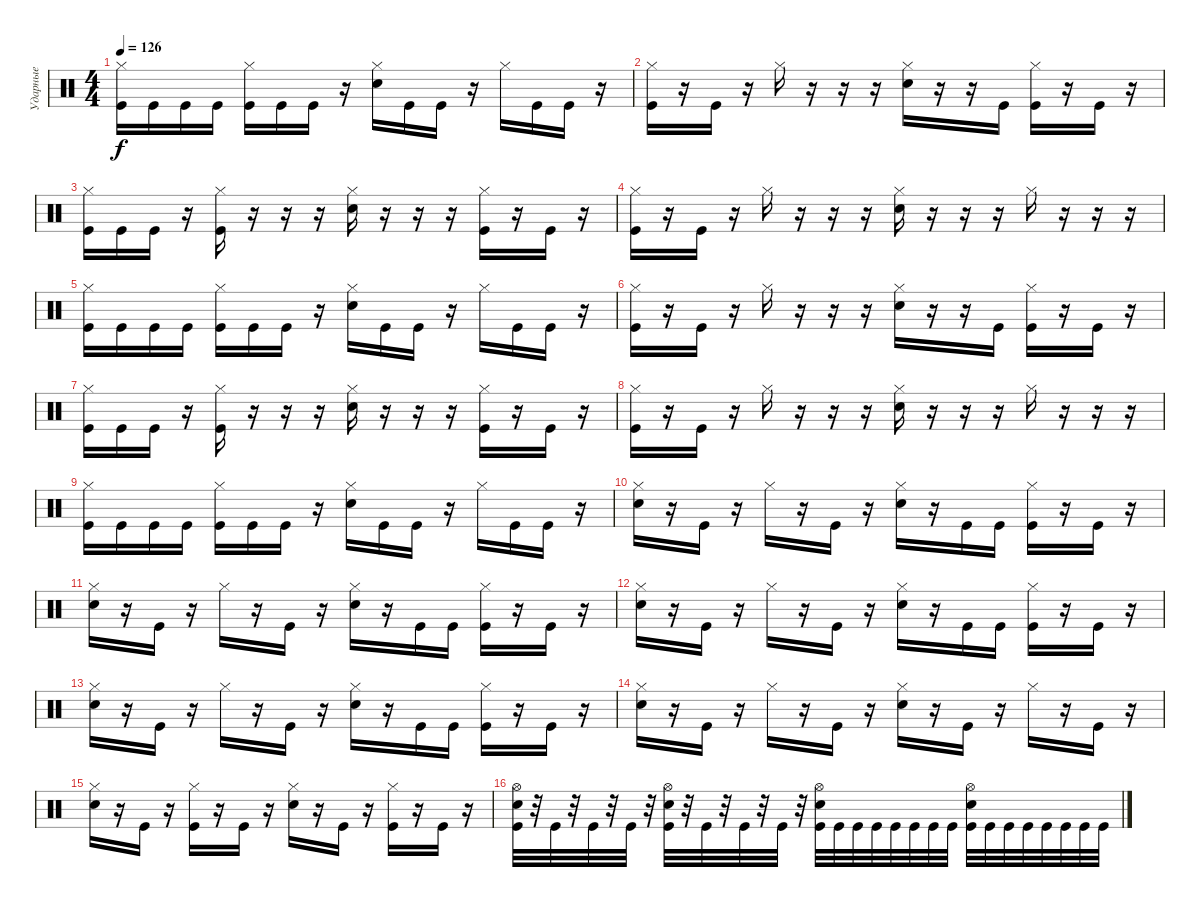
\track ("Ударные" "Ударные") {instrument percussion}
\staff {score}
\articulation defaults
\ts (4 4)
\tempo 126
\clef neutral
\ks c
("Hi-Hat (closed)" "Kick (hit)").16{dy f} "Kick (hit)".16 "Kick (hit)".16 "Kick (hit)".16 ("Hi-Hat (closed)" "Kick (hit)").16 "Kick (hit)".16 "Kick (hit)".16 r.16 ("Hi-Hat (closed)" "Electric Snare (hit)").16 "Kick (hit)".16 "Kick (hit)".16 r.16 "Hi-Hat (closed)".16 "Kick (hit)".16 "Kick (hit)".16 r.16 |
("Hi-Hat (closed)" "Kick (hit)").16 r.16 "Kick (hit)".16 r.16 "Hi-Hat (closed)".16 r.16 r.16 r.16 ("Hi-Hat (closed)" "Electric Snare (hit)").16 r.16 r.16 "Kick (hit)".16 ("Hi-Hat (closed)" "Kick (hit)").16 r.16 "Kick (hit)".16 r.16 |
("Hi-Hat (closed)" "Kick (hit)").16 "Kick (hit)".16 "Kick (hit)".16 r.16 ("Hi-Hat (closed)" "Kick (hit)").16 r.16 r.16 r.16 ("Hi-Hat (closed)" "Electric Snare (hit)").16 r.16 r.16 r.16 ("Hi-Hat (closed)" "Kick (hit)").16 r.16 "Kick (hit)".16 r.16 |
("Hi-Hat (closed)" "Kick (hit)").16 r.16 "Kick (hit)".16 r.16 "Hi-Hat (closed)".16 r.16 r.16 r.16 ("Hi-Hat (closed)" "Electric Snare (hit)").16 r.16 r.16 r.16 "Hi-Hat (closed)".16 r.16 r.16 r.16 |
("Hi-Hat (closed)" "Kick (hit)").16 "Kick (hit)".16 "Kick (hit)".16 "Kick (hit)".16 ("Hi-Hat (closed)" "Kick (hit)").16 "Kick (hit)".16 "Kick (hit)".16 r.16 ("Hi-Hat (closed)" "Electric Snare (hit)").16 "Kick (hit)".16 "Kick (hit)".16 r.16 "Hi-Hat (closed)".16 "Kick (hit)".16 "Kick (hit)".16 r.16 |
("Hi-Hat (closed)" "Kick (hit)").16 r.16 "Kick (hit)".16 r.16 "Hi-Hat (closed)".16 r.16 r.16 r.16 ("Hi-Hat (closed)" "Electric Snare (hit)").16 r.16 r.16 "Kick (hit)".16 ("Hi-Hat (closed)" "Kick (hit)").16 r.16 "Kick (hit)".16 r.16 |
("Hi-Hat (closed)" "Kick (hit)").16 "Kick (hit)".16 "Kick (hit)".16 r.16 ("Hi-Hat (closed)" "Kick (hit)").16 r.16 r.16 r.16 ("Hi-Hat (closed)" "Electric Snare (hit)").16 r.16 r.16 r.16 ("Hi-Hat (closed)" "Kick (hit)").16 r.16 "Kick (hit)".16 r.16 |
("Hi-Hat (closed)" "Kick (hit)").16 r.16 "Kick (hit)".16 r.16 "Hi-Hat (closed)".16 r.16 r.16 r.16 ("Hi-Hat (closed)" "Electric Snare (hit)").16 r.16 r.16 r.16 "Hi-Hat (closed)".16 r.16 r.16 r.16 |
("Hi-Hat (closed)" "Kick (hit)").16 "Kick (hit)".16 "Kick (hit)".16 "Kick (hit)".16 ("Hi-Hat (closed)" "Kick (hit)").16 "Kick (hit)".16 "Kick (hit)".16 r.16 ("Hi-Hat (closed)" "Electric Snare (hit)").16 "Kick (hit)".16 "Kick (hit)".16 r.16 "Hi-Hat (closed)".16 "Kick (hit)".16 "Kick (hit)".16 r.16 |
("Hi-Hat (closed)" "Electric Snare (hit)").16 r.16 "Kick (hit)".16 r.16 "Hi-Hat (closed)".16 r.16 "Kick (hit)".16 r.16 ("Hi-Hat (closed)" "Electric Snare (hit)").16 r.16 "Kick (hit)".16 "Kick (hit)".16 ("Hi-Hat (closed)" "Kick (hit)").16 r.16 "Kick (hit)".16 r.16 |
("Hi-Hat (closed)" "Electric Snare (hit)").16 r.16 "Kick (hit)".16 r.16 "Hi-Hat (closed)".16 r.16 "Kick (hit)".16 r.16 ("Hi-Hat (closed)" "Electric Snare (hit)").16 r.16 "Kick (hit)".16 "Kick (hit)".16 ("Hi-Hat (closed)" "Kick (hit)").16 r.16 "Kick (hit)".16 r.16 |
("Hi-Hat (closed)" "Electric Snare (hit)").16 r.16 "Kick (hit)".16 r.16 "Hi-Hat (closed)".16 r.16 "Kick (hit)".16 r.16 ("Hi-Hat (closed)" "Electric Snare (hit)").16 r.16 "Kick (hit)".16 "Kick (hit)".16 ("Hi-Hat (closed)" "Kick (hit)").16 r.16 "Kick (hit)".16 r.16 |
("Hi-Hat (closed)" "Electric Snare (hit)").16 r.16 "Kick (hit)".16 r.16 "Hi-Hat (closed)".16 r.16 "Kick (hit)".16 r.16 ("Hi-Hat (closed)" "Electric Snare (hit)").16 r.16 "Kick (hit)".16 "Kick (hit)".16 ("Hi-Hat (closed)" "Kick (hit)").16 r.16 "Kick (hit)".16 r.16 |
("Hi-Hat (closed)" "Electric Snare (hit)").16 r.16 "Kick (hit)".16 r.16 "Hi-Hat (closed)".16 r.16 "Kick (hit)".16 r.16 ("Hi-Hat (closed)" "Electric Snare (hit)").16 r.16 "Kick (hit)".16 r.16 "Hi-Hat (closed)".16 r.16 "Kick (hit)".16 r.16 |
("Hi-Hat (closed)" "Electric Snare (hit)").16 r.16 "Kick (hit)".16 r.16 ("Hi-Hat (closed)" "Kick (hit)").16 r.16 "Kick (hit)".16 r.16 ("Hi-Hat (closed)" "Electric Snare (hit)").16 r.16 "Kick (hit)".16 r.16 ("Hi-Hat (closed)" "Kick (hit)").16 r.16 "Kick (hit)".16 r.16 |
("Kick (hit)" "Electric Snare (hit)" "Hi-Hat (open)").32 r.32 "Kick (hit)".32 r.32 "Kick (hit)".32 r.32 "Kick (hit)".32 r.32 ("Kick (hit)" "Electric Snare (hit)" "Hi-Hat (open)").32 r.32 "Kick (hit)".32 r.32 "Kick (hit)".32 r.32 "Kick (hit)".32 r.32 ("Kick (hit)" "Electric Snare (hit)" "Hi-Hat (open)").32 "Kick (hit)".32 "Kick (hit)".32 "Kick (hit)".32 "Kick (hit)".32 "Kick (hit)".32 "Kick (hit)".32 "Kick (hit)".32 ("Kick (hit)" "Electric Snare (hit)" "Hi-Hat (open)").32 "Kick (hit)".32 "Kick (hit)".32 "Kick (hit)".32 "Kick (hit)".32 "Kick (hit)".32 "Kick (hit)".32 "Kick (hit)".32
